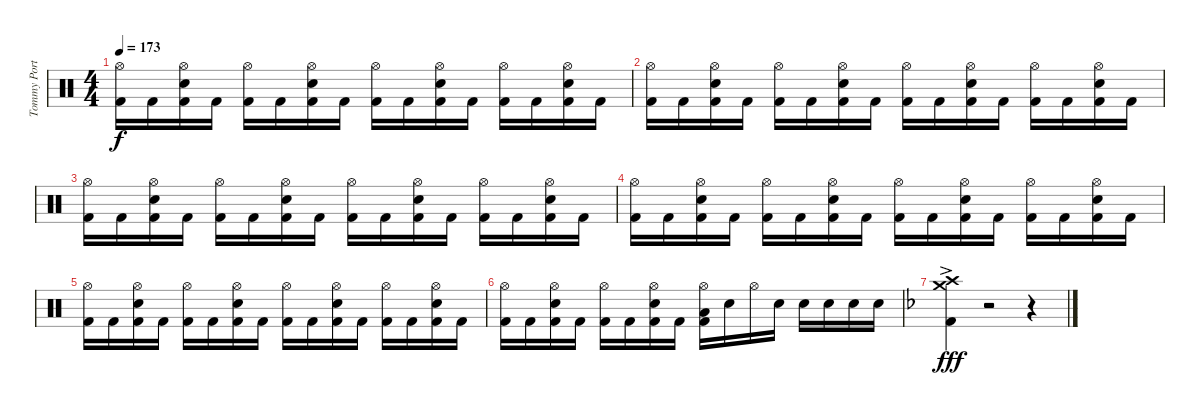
\track ("Tommy Portimo - Drums" "Tommy Port") {instrument percussion}
\staff {score}
\articulation defaults
\ts (4 4)
\tempo 173
\clef neutral
\ks aminor
("Kick (hit) 2" "Hi-Hat (open)").16{dy f} "Kick (hit) 2".16 ("Kick (hit) 2" "Electric Snare (hit)" "Hi-Hat (open)").16 "Kick (hit) 2".16 ("Kick (hit) 2" "Hi-Hat (open)").16 "Kick (hit) 2".16 ("Kick (hit) 2" "Electric Snare (hit)" "Hi-Hat (open)").16 "Kick (hit) 2".16 ("Kick (hit) 2" "Hi-Hat (open)").16 "Kick (hit) 2".16 ("Kick (hit) 2" "Electric Snare (hit)" "Hi-Hat (open)").16 "Kick (hit) 2".16 ("Kick (hit) 2" "Hi-Hat (open)").16 "Kick (hit) 2".16 ("Kick (hit) 2" "Electric Snare (hit)" "Hi-Hat (open)").16 "Kick (hit) 2".16 |
("Kick (hit) 2" "Hi-Hat (open)").16 "Kick (hit) 2".16 ("Kick (hit) 2" "Electric Snare (hit)" "Hi-Hat (open)").16 "Kick (hit) 2".16 ("Kick (hit) 2" "Hi-Hat (open)").16 "Kick (hit) 2".16 ("Kick (hit) 2" "Electric Snare (hit)" "Hi-Hat (open)").16 "Kick (hit) 2".16 ("Kick (hit) 2" "Hi-Hat (open)").16 "Kick (hit) 2".16 ("Kick (hit) 2" "Electric Snare (hit)" "Hi-Hat (open)").16 "Kick (hit) 2".16 ("Kick (hit) 2" "Hi-Hat (open)").16 "Kick (hit) 2".16 ("Kick (hit) 2" "Electric Snare (hit)" "Hi-Hat (open)").16 "Kick (hit) 2".16 |
("Kick (hit) 2" "Hi-Hat (open)").16 "Kick (hit) 2".16 ("Kick (hit) 2" "Electric Snare (hit)" "Hi-Hat (open)").16 "Kick (hit) 2".16 ("Kick (hit) 2" "Hi-Hat (open)").16 "Kick (hit) 2".16 ("Kick (hit) 2" "Electric Snare (hit)" "Hi-Hat (open)").16 "Kick (hit) 2".16 ("Kick (hit) 2" "Hi-Hat (open)").16 "Kick (hit) 2".16 ("Kick (hit) 2" "Electric Snare (hit)" "Hi-Hat (open)").16 "Kick (hit) 2".16 ("Kick (hit) 2" "Hi-Hat (open)").16 "Kick (hit) 2".16 ("Kick (hit) 2" "Electric Snare (hit)" "Hi-Hat (open)").16 "Kick (hit) 2".16 |
("Kick (hit) 2" "Hi-Hat (open)").16 "Kick (hit) 2".16 ("Kick (hit) 2" "Electric Snare (hit)" "Hi-Hat (open)").16 "Kick (hit) 2".16 ("Kick (hit) 2" "Hi-Hat (open)").16 "Kick (hit) 2".16 ("Kick (hit) 2" "Electric Snare (hit)" "Hi-Hat (open)").16 "Kick (hit) 2".16 ("Kick (hit) 2" "Hi-Hat (open)").16 "Kick (hit) 2".16 ("Kick (hit) 2" "Electric Snare (hit)" "Hi-Hat (open)").16 "Kick (hit) 2".16 ("Kick (hit) 2" "Hi-Hat (open)").16 "Kick (hit) 2".16 ("Kick (hit) 2" "Electric Snare (hit)" "Hi-Hat (open)").16 "Kick (hit) 2".16 |
("Kick (hit) 2" "Hi-Hat (open)").16 "Kick (hit) 2".16 ("Kick (hit) 2" "Electric Snare (hit)" "Hi-Hat (open)").16 "Kick (hit) 2".16 ("Kick (hit) 2" "Hi-Hat (open)").16 "Kick (hit) 2".16 ("Kick (hit) 2" "Electric Snare (hit)" "Hi-Hat (open)").16 "Kick (hit) 2".16 ("Kick (hit) 2" "Hi-Hat (open)").16 "Kick (hit) 2".16 ("Kick (hit) 2" "Electric Snare (hit)" "Hi-Hat (open)").16 "Kick (hit) 2".16 ("Kick (hit) 2" "Hi-Hat (open)").16 "Kick (hit) 2".16 ("Kick (hit) 2" "Electric Snare (hit)" "Hi-Hat (open)").16 "Kick (hit) 2".16 |
("Kick (hit) 2" "Hi-Hat (open)").16 "Kick (hit) 2".16 ("Kick (hit) 2" "Electric Snare (hit)" "Hi-Hat (open)").16 "Kick (hit) 2".16 ("Kick (hit) 2" "Hi-Hat (open)").16 "Kick (hit) 2".16 ("Kick (hit) 2" "Electric Snare (hit)" "Hi-Hat (open)").16 "Kick (hit) 2".16 ("Kick (hit) 2" "Low Floor Tom (hit)" "Hi-Hat (open)").16 "Electric Snare (hit)".16 "Hi-Hat (open)".16 "Electric Snare (hit)".16 "Electric Snare (hit)".16 "Electric Snare (hit)".16 "Electric Snare (hit)".16 "Electric Snare (hit)".16 |
\ks dminor
("Kick (hit) 2"{ac} "Crash medium (hit)" "Crash high (hit)").4{dy fff} r.2 r.4
